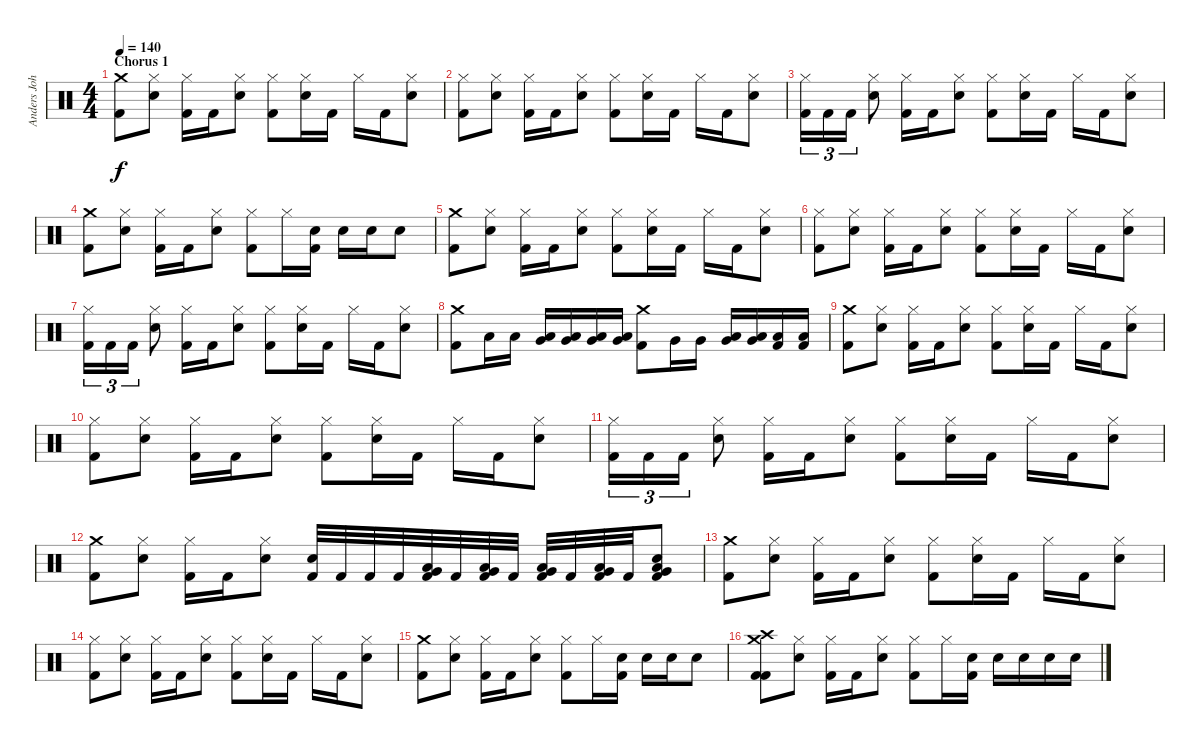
\track ("Anders Johansson :: Drums" "Anders Joh") {instrument percussion}
\staff {score}
\articulation defaults
\ts (4 4)
\section ("" "Chorus 1")
\tempo 140
\clef neutral
\ks c
("Crash medium (hit)" "Kick (hit) 2").8{dy f} ("Hi-Hat (closed)" "Snare (hit) 2").8 ("Hi-Hat (closed)" "Kick (hit) 2").16 "Kick (hit) 2".16 ("Hi-Hat (closed)" "Snare (hit) 2").8 ("Hi-Hat (closed)" "Kick (hit) 2").8 ("Hi-Hat (closed)" "Snare (hit) 2").16 "Kick (hit) 2".16 "Hi-Hat (closed)".16 "Kick (hit) 2".16 ("Hi-Hat (closed)" "Snare (hit) 2").8 |
("Hi-Hat (closed)" "Kick (hit) 2").8 ("Hi-Hat (closed)" "Snare (hit) 2").8 ("Hi-Hat (closed)" "Kick (hit) 2").16 "Kick (hit) 2".16 ("Hi-Hat (closed)" "Snare (hit) 2").8 ("Hi-Hat (closed)" "Kick (hit) 2").8 ("Hi-Hat (closed)" "Snare (hit) 2").16 "Kick (hit) 2".16 "Hi-Hat (closed)".16 "Kick (hit) 2".16 ("Hi-Hat (closed)" "Snare (hit) 2").8 |
("Hi-Hat (closed)" "Kick (hit) 2").16{tu (3 2)} "Kick (hit) 2".16{tu (3 2)} "Kick (hit) 2".16{tu (3 2)} ("Hi-Hat (closed)" "Snare (hit) 2").8 ("Hi-Hat (closed)" "Kick (hit) 2").16 "Kick (hit) 2".16 ("Hi-Hat (closed)" "Snare (hit) 2").8 ("Hi-Hat (closed)" "Kick (hit) 2").8 ("Hi-Hat (closed)" "Snare (hit) 2").16 "Kick (hit) 2".16 "Hi-Hat (closed)".16 "Kick (hit) 2".16 ("Hi-Hat (closed)" "Snare (hit) 2").8 |
("Crash medium (hit)" "Kick (hit) 2").8 ("Hi-Hat (closed)" "Snare (hit) 2").8 ("Hi-Hat (closed)" "Kick (hit) 2").16 "Kick (hit) 2".16 ("Hi-Hat (closed)" "Snare (hit) 2").8 ("Hi-Hat (closed)" "Kick (hit) 2").8 "Hi-Hat (closed)".16 ("Snare (hit) 2" "Kick (hit) 2").16 "Snare (hit) 2".16 "Snare (hit) 2".16 "Snare (hit) 2".8 |
("Crash medium (hit)" "Kick (hit) 2").8 ("Hi-Hat (closed)" "Snare (hit) 2").8 ("Hi-Hat (closed)" "Kick (hit) 2").16 "Kick (hit) 2".16 ("Hi-Hat (closed)" "Snare (hit) 2").8 ("Hi-Hat (closed)" "Kick (hit) 2").8 ("Hi-Hat (closed)" "Snare (hit) 2").16 "Kick (hit) 2".16 "Hi-Hat (closed)".16 "Kick (hit) 2".16 ("Hi-Hat (closed)" "Snare (hit) 2").8 |
("Hi-Hat (closed)" "Kick (hit) 2").8 ("Hi-Hat (closed)" "Snare (hit) 2").8 ("Hi-Hat (closed)" "Kick (hit) 2").16 "Kick (hit) 2".16 ("Hi-Hat (closed)" "Snare (hit) 2").8 ("Hi-Hat (closed)" "Kick (hit) 2").8 ("Hi-Hat (closed)" "Snare (hit) 2").16 "Kick (hit) 2".16 "Hi-Hat (closed)".16 "Kick (hit) 2".16 ("Hi-Hat (closed)" "Snare (hit) 2").8 |
("Hi-Hat (closed)" "Kick (hit) 2").16{tu (3 2)} "Kick (hit) 2".16{tu (3 2)} "Kick (hit) 2".16{tu (3 2)} ("Hi-Hat (closed)" "Snare (hit) 2").8 ("Hi-Hat (closed)" "Kick (hit) 2").16 "Kick (hit) 2".16 ("Hi-Hat (closed)" "Snare (hit) 2").8 ("Hi-Hat (closed)" "Kick (hit) 2").8 ("Hi-Hat (closed)" "Snare (hit) 2").16 "Kick (hit) 2".16 "Hi-Hat (closed)".16 "Kick (hit) 2".16 ("Hi-Hat (closed)" "Snare (hit) 2").8 |
("Crash medium (hit)" "Kick (hit) 2").8 "Low Tom (hit)".16 "Low Tom (hit)".16 ("Low Tom (hit)" "Very Low Tom (hit)").16 ("Low Tom (hit)" "Very Low Tom (hit)").16 ("Very Low Tom (hit)" "Low Floor Tom (hit)").16 ("Very Low Tom (hit)" "Low Floor Tom (hit)").16 ("Crash medium (hit)" "Kick (hit) 2").8 "Very Low Tom (hit)".16 "Very Low Tom (hit)".16 ("Very Low Tom (hit)" "Low Floor Tom (hit)").16 ("Very Low Tom (hit)" "Low Floor Tom (hit)").16 ("Low Floor Tom (hit)" "Kick (hit) 2").16 ("Low Floor Tom (hit)" "Kick (hit) 2").16 |
("Crash medium (hit)" "Kick (hit) 2").8 ("Hi-Hat (closed)" "Snare (hit) 2").8 ("Hi-Hat (closed)" "Kick (hit) 2").16 "Kick (hit) 2".16 ("Hi-Hat (closed)" "Snare (hit) 2").8 ("Hi-Hat (closed)" "Kick (hit) 2").8 ("Hi-Hat (closed)" "Snare (hit) 2").16 "Kick (hit) 2".16 "Hi-Hat (closed)".16 "Kick (hit) 2".16 ("Hi-Hat (closed)" "Snare (hit) 2").8 |
("Hi-Hat (closed)" "Kick (hit) 2").8 ("Hi-Hat (closed)" "Snare (hit) 2").8 ("Hi-Hat (closed)" "Kick (hit) 2").16 "Kick (hit) 2".16 ("Hi-Hat (closed)" "Snare (hit) 2").8 ("Hi-Hat (closed)" "Kick (hit) 2").8 ("Hi-Hat (closed)" "Snare (hit) 2").16 "Kick (hit) 2".16 "Hi-Hat (closed)".16 "Kick (hit) 2".16 ("Hi-Hat (closed)" "Snare (hit) 2").8 |
("Hi-Hat (closed)" "Kick (hit) 2").16{tu (3 2)} "Kick (hit) 2".16{tu (3 2)} "Kick (hit) 2".16{tu (3 2)} ("Hi-Hat (closed)" "Snare (hit) 2").8 ("Hi-Hat (closed)" "Kick (hit) 2").16 "Kick (hit) 2".16 ("Hi-Hat (closed)" "Snare (hit) 2").8 ("Hi-Hat (closed)" "Kick (hit) 2").8 ("Hi-Hat (closed)" "Snare (hit) 2").16 "Kick (hit) 2".16 "Hi-Hat (closed)".16 "Kick (hit) 2".16 ("Hi-Hat (closed)" "Snare (hit) 2").8 |
("Crash medium (hit)" "Kick (hit) 2").8 ("Hi-Hat (closed)" "Snare (hit) 2").8 ("Hi-Hat (closed)" "Kick (hit) 2").16 "Kick (hit) 2".16 ("Hi-Hat (closed)" "Snare (hit) 2").8 ("Snare (hit) 2" "Kick (hit) 2").32 "Kick (hit) 2".32 "Kick (hit) 2".32 "Kick (hit) 2".32 ("Low Tom (hit)" "Very Low Tom (hit)" "Kick (hit) 2").32 "Kick (hit) 2".32 ("Low Tom (hit)" "Very Low Tom (hit)" "Kick (hit) 2").32 "Kick (hit) 2".32 ("Low Tom (hit)" "Very Low Tom (hit)" "Kick (hit) 2").32 "Kick (hit) 2".32 ("Low Tom (hit)" "Very Low Tom (hit)" "Kick (hit) 2").32 "Kick (hit) 2".32 ("Snare (hit) 2" "Low Tom (hit)" "Very Low Tom (hit)" "Kick (hit) 2").8 |
("Crash medium (hit)" "Kick (hit) 2").8 ("Hi-Hat (closed)" "Snare (hit) 2").8 ("Hi-Hat (closed)" "Kick (hit) 2").16 "Kick (hit) 2".16 ("Hi-Hat (closed)" "Snare (hit) 2").8 ("Hi-Hat (closed)" "Kick (hit) 2").8 ("Hi-Hat (closed)" "Snare (hit) 2").16 "Kick (hit) 2".16 "Hi-Hat (closed)".16 "Kick (hit) 2".16 ("Hi-Hat (closed)" "Snare (hit) 2").8 |
("Hi-Hat (closed)" "Kick (hit) 2").8 ("Hi-Hat (closed)" "Snare (hit) 2").8 ("Hi-Hat (closed)" "Kick (hit) 2").16 "Kick (hit) 2".16 ("Hi-Hat (closed)" "Snare (hit) 2").8 ("Hi-Hat (closed)" "Kick (hit) 2").8 ("Hi-Hat (closed)" "Snare (hit) 2").16 "Kick (hit) 2".16 "Hi-Hat (closed)".16 "Kick (hit) 2".16 ("Hi-Hat (closed)" "Snare (hit) 2").8 |
("Crash medium (hit)" "Kick (hit) 2").8 ("Hi-Hat (closed)" "Snare (hit) 2").8 ("Hi-Hat (closed)" "Kick (hit) 2").16 "Kick (hit) 2".16 ("Hi-Hat (closed)" "Snare (hit) 2").8 ("Hi-Hat (closed)" "Kick (hit) 2").8 "Hi-Hat (closed)".16 ("Snare (hit) 2" "Kick (hit) 2").16 "Snare (hit) 2".16 "Snare (hit) 2".16 "Snare (hit) 2".8 |
("Crash medium (hit)" "Crash high (hit)" "Kick (hit) 2" "Kick (hit) 2").8 ("Hi-Hat (closed)" "Snare (hit) 2").8 ("Hi-Hat (closed)" "Kick (hit) 2").16 "Kick (hit) 2".16 ("Hi-Hat (closed)" "Snare (hit) 2").8 ("Hi-Hat (closed)" "Kick (hit) 2").8 "Hi-Hat (closed)".16 ("Snare (hit) 2" "Kick (hit) 2").16 "Snare (hit) 2".16 "Snare (hit) 2".16 "Snare (hit) 2".16 "Snare (hit) 2".16
